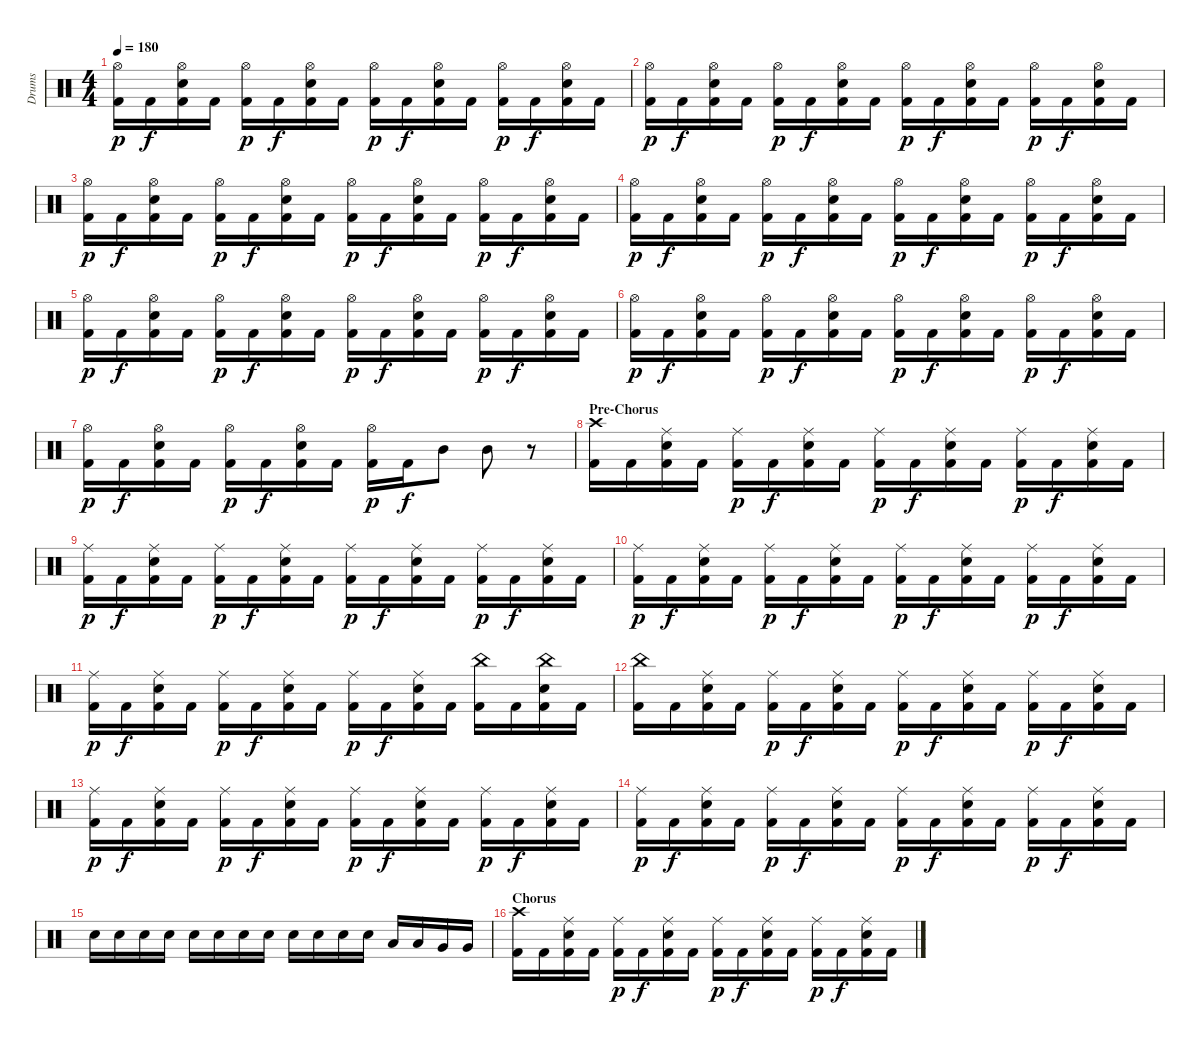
\track ("Drums" "Drums") {instrument percussion}
\staff {score}
\articulation defaults
\ts (4 4)
\tempo 180
\clef neutral
\ks c
("Hi-Hat (open)" "Kick (hit) 2").16{dy p} "Kick (hit) 2".16{dy f} ("Hi-Hat (open)" "Snare (hit) 2" "Kick (hit) 2").16 "Kick (hit) 2".16 ("Hi-Hat (open)" "Kick (hit) 2").16{dy p} "Kick (hit) 2".16{dy f} ("Hi-Hat (open)" "Snare (hit) 2" "Kick (hit) 2").16 "Kick (hit) 2".16 ("Hi-Hat (open)" "Kick (hit) 2").16{dy p} "Kick (hit) 2".16{dy f} ("Hi-Hat (open)" "Snare (hit) 2" "Kick (hit) 2").16 "Kick (hit) 2".16 ("Hi-Hat (open)" "Kick (hit) 2").16{dy p} "Kick (hit) 2".16{dy f} ("Hi-Hat (open)" "Snare (hit) 2" "Kick (hit) 2").16 "Kick (hit) 2".16 |
("Hi-Hat (open)" "Kick (hit) 2").16{dy p} "Kick (hit) 2".16{dy f} ("Hi-Hat (open)" "Snare (hit) 2" "Kick (hit) 2").16 "Kick (hit) 2".16 ("Hi-Hat (open)" "Kick (hit) 2").16{dy p} "Kick (hit) 2".16{dy f} ("Hi-Hat (open)" "Snare (hit) 2" "Kick (hit) 2").16 "Kick (hit) 2".16 ("Hi-Hat (open)" "Kick (hit) 2").16{dy p} "Kick (hit) 2".16{dy f} ("Hi-Hat (open)" "Snare (hit) 2" "Kick (hit) 2").16 "Kick (hit) 2".16 ("Hi-Hat (open)" "Kick (hit) 2").16{dy p} "Kick (hit) 2".16{dy f} ("Hi-Hat (open)" "Snare (hit) 2" "Kick (hit) 2").16 "Kick (hit) 2".16 |
("Hi-Hat (open)" "Kick (hit) 2").16{dy p} "Kick (hit) 2".16{dy f} ("Hi-Hat (open)" "Snare (hit) 2" "Kick (hit) 2").16 "Kick (hit) 2".16 ("Hi-Hat (open)" "Kick (hit) 2").16{dy p} "Kick (hit) 2".16{dy f} ("Hi-Hat (open)" "Snare (hit) 2" "Kick (hit) 2").16 "Kick (hit) 2".16 ("Hi-Hat (open)" "Kick (hit) 2").16{dy p} "Kick (hit) 2".16{dy f} ("Hi-Hat (open)" "Snare (hit) 2" "Kick (hit) 2").16 "Kick (hit) 2".16 ("Hi-Hat (open)" "Kick (hit) 2").16{dy p} "Kick (hit) 2".16{dy f} ("Hi-Hat (open)" "Snare (hit) 2" "Kick (hit) 2").16 "Kick (hit) 2".16 |
("Hi-Hat (open)" "Kick (hit) 2").16{dy p} "Kick (hit) 2".16{dy f} ("Hi-Hat (open)" "Snare (hit) 2" "Kick (hit) 2").16 "Kick (hit) 2".16 ("Hi-Hat (open)" "Kick (hit) 2").16{dy p} "Kick (hit) 2".16{dy f} ("Hi-Hat (open)" "Snare (hit) 2" "Kick (hit) 2").16 "Kick (hit) 2".16 ("Hi-Hat (open)" "Kick (hit) 2").16{dy p} "Kick (hit) 2".16{dy f} ("Hi-Hat (open)" "Snare (hit) 2" "Kick (hit) 2").16 "Kick (hit) 2".16 ("Hi-Hat (open)" "Kick (hit) 2").16{dy p} "Kick (hit) 2".16{dy f} ("Hi-Hat (open)" "Snare (hit) 2" "Kick (hit) 2").16 "Kick (hit) 2".16 |
("Hi-Hat (open)" "Kick (hit) 2").16{dy p} "Kick (hit) 2".16{dy f} ("Hi-Hat (open)" "Snare (hit) 2" "Kick (hit) 2").16 "Kick (hit) 2".16 ("Hi-Hat (open)" "Kick (hit) 2").16{dy p} "Kick (hit) 2".16{dy f} ("Hi-Hat (open)" "Snare (hit) 2" "Kick (hit) 2").16 "Kick (hit) 2".16 ("Hi-Hat (open)" "Kick (hit) 2").16{dy p} "Kick (hit) 2".16{dy f} ("Hi-Hat (open)" "Snare (hit) 2" "Kick (hit) 2").16 "Kick (hit) 2".16 ("Hi-Hat (open)" "Kick (hit) 2").16{dy p} "Kick (hit) 2".16{dy f} ("Hi-Hat (open)" "Snare (hit) 2" "Kick (hit) 2").16 "Kick (hit) 2".16 |
("Hi-Hat (open)" "Kick (hit) 2").16{dy p} "Kick (hit) 2".16{dy f} ("Hi-Hat (open)" "Snare (hit) 2" "Kick (hit) 2").16 "Kick (hit) 2".16 ("Hi-Hat (open)" "Kick (hit) 2").16{dy p} "Kick (hit) 2".16{dy f} ("Hi-Hat (open)" "Snare (hit) 2" "Kick (hit) 2").16 "Kick (hit) 2".16 ("Hi-Hat (open)" "Kick (hit) 2").16{dy p} "Kick (hit) 2".16{dy f} ("Hi-Hat (open)" "Snare (hit) 2" "Kick (hit) 2").16 "Kick (hit) 2".16 ("Hi-Hat (open)" "Kick (hit) 2").16{dy p} "Kick (hit) 2".16{dy f} ("Hi-Hat (open)" "Snare (hit) 2" "Kick (hit) 2").16 "Kick (hit) 2".16 |
("Hi-Hat (open)" "Kick (hit) 2").16{dy p} "Kick (hit) 2".16{dy f} ("Hi-Hat (open)" "Snare (hit) 2" "Kick (hit) 2").16 "Kick (hit) 2".16 ("Hi-Hat (open)" "Kick (hit) 2").16{dy p} "Kick (hit) 2".16{dy f} ("Hi-Hat (open)" "Snare (hit) 2" "Kick (hit) 2").16 "Kick (hit) 2".16 ("Hi-Hat (open)" "Kick (hit) 2").16{dy p} "Kick (hit) 2".16{dy f} "Mid Tom (hit)".8 "Mid Tom (hit)".8 r.8 |
\section ("" "Pre-Chorus")
("Crash high (hit)" "Kick (hit) 2").16 "Kick (hit) 2".16 ("Ride (middle)" "Snare (hit) 2" "Kick (hit) 2").16 "Kick (hit) 2".16 ("Ride (middle)" "Kick (hit) 2").16{dy p} "Kick (hit) 2".16{dy f} ("Ride (middle)" "Snare (hit) 2" "Kick (hit) 2").16 "Kick (hit) 2".16 ("Ride (middle)" "Kick (hit) 2").16{dy p} "Kick (hit) 2".16{dy f} ("Ride (middle)" "Snare (hit) 2" "Kick (hit) 2").16 "Kick (hit) 2".16 ("Ride (middle)" "Kick (hit) 2").16{dy p} "Kick (hit) 2".16{dy f} ("Ride (middle)" "Snare (hit) 2" "Kick (hit) 2").16 "Kick (hit) 2".16 |
("Ride (middle)" "Kick (hit) 2").16{dy p} "Kick (hit) 2".16{dy f} ("Ride (middle)" "Snare (hit) 2" "Kick (hit) 2").16 "Kick (hit) 2".16 ("Ride (middle)" "Kick (hit) 2").16{dy p} "Kick (hit) 2".16{dy f} ("Ride (middle)" "Snare (hit) 2" "Kick (hit) 2").16 "Kick (hit) 2".16 ("Ride (middle)" "Kick (hit) 2").16{dy p} "Kick (hit) 2".16{dy f} ("Ride (middle)" "Snare (hit) 2" "Kick (hit) 2").16 "Kick (hit) 2".16 ("Ride (middle)" "Kick (hit) 2").16{dy p} "Kick (hit) 2".16{dy f} ("Ride (middle)" "Snare (hit) 2" "Kick (hit) 2").16 "Kick (hit) 2".16 |
("Ride (middle)" "Kick (hit) 2").16{dy p} "Kick (hit) 2".16{dy f} ("Ride (middle)" "Snare (hit) 2" "Kick (hit) 2").16 "Kick (hit) 2".16 ("Ride (middle)" "Kick (hit) 2").16{dy p} "Kick (hit) 2".16{dy f} ("Ride (middle)" "Snare (hit) 2" "Kick (hit) 2").16 "Kick (hit) 2".16 ("Ride (middle)" "Kick (hit) 2").16{dy p} "Kick (hit) 2".16{dy f} ("Ride (middle)" "Snare (hit) 2" "Kick (hit) 2").16 "Kick (hit) 2".16 ("Ride (middle)" "Kick (hit) 2").16{dy p} "Kick (hit) 2".16{dy f} ("Ride (middle)" "Snare (hit) 2" "Kick (hit) 2").16 "Kick (hit) 2".16 |
("Ride (middle)" "Kick (hit) 2").16{dy p} "Kick (hit) 2".16{dy f} ("Ride (middle)" "Snare (hit) 2" "Kick (hit) 2").16 "Kick (hit) 2".16 ("Ride (middle)" "Kick (hit) 2").16{dy p} "Kick (hit) 2".16{dy f} ("Ride (middle)" "Snare (hit) 2" "Kick (hit) 2").16 "Kick (hit) 2".16 ("Ride (middle)" "Kick (hit) 2").16{dy p} "Kick (hit) 2".16{dy f} ("Ride (middle)" "Snare (hit) 2" "Kick (hit) 2").16 "Kick (hit) 2".16 ("China (hit)" "Kick (hit) 2").16 "Kick (hit) 2".16 ("China (hit)" "Snare (hit) 2" "Kick (hit) 2").16 "Kick (hit) 2".16 |
("China (hit)" "Kick (hit) 2").16 "Kick (hit) 2".16 ("Ride (middle)" "Snare (hit) 2" "Kick (hit) 2").16 "Kick (hit) 2".16 ("Ride (middle)" "Kick (hit) 2").16{dy p} "Kick (hit) 2".16{dy f} ("Ride (middle)" "Snare (hit) 2" "Kick (hit) 2").16 "Kick (hit) 2".16 ("Ride (middle)" "Kick (hit) 2").16{dy p} "Kick (hit) 2".16{dy f} ("Ride (middle)" "Snare (hit) 2" "Kick (hit) 2").16 "Kick (hit) 2".16 ("Ride (middle)" "Kick (hit) 2").16{dy p} "Kick (hit) 2".16{dy f} ("Ride (middle)" "Snare (hit) 2" "Kick (hit) 2").16 "Kick (hit) 2".16 |
("Ride (middle)" "Kick (hit) 2").16{dy p} "Kick (hit) 2".16{dy f} ("Ride (middle)" "Snare (hit) 2" "Kick (hit) 2").16 "Kick (hit) 2".16 ("Ride (middle)" "Kick (hit) 2").16{dy p} "Kick (hit) 2".16{dy f} ("Ride (middle)" "Snare (hit) 2" "Kick (hit) 2").16 "Kick (hit) 2".16 ("Ride (middle)" "Kick (hit) 2").16{dy p} "Kick (hit) 2".16{dy f} ("Ride (middle)" "Snare (hit) 2" "Kick (hit) 2").16 "Kick (hit) 2".16 ("Ride (middle)" "Kick (hit) 2").16{dy p} "Kick (hit) 2".16{dy f} ("Ride (middle)" "Snare (hit) 2" "Kick (hit) 2").16 "Kick (hit) 2".16 |
("Ride (middle)" "Kick (hit) 2").16{dy p} "Kick (hit) 2".16{dy f} ("Ride (middle)" "Snare (hit) 2" "Kick (hit) 2").16 "Kick (hit) 2".16 ("Ride (middle)" "Kick (hit) 2").16{dy p} "Kick (hit) 2".16{dy f} ("Ride (middle)" "Snare (hit) 2" "Kick (hit) 2").16 "Kick (hit) 2".16 ("Ride (middle)" "Kick (hit) 2").16{dy p} "Kick (hit) 2".16{dy f} ("Ride (middle)" "Snare (hit) 2" "Kick (hit) 2").16 "Kick (hit) 2".16 ("Ride (middle)" "Kick (hit) 2").16{dy p} "Kick (hit) 2".16{dy f} ("Ride (middle)" "Snare (hit) 2" "Kick (hit) 2").16 "Kick (hit) 2".16 |
"Snare (hit) 2".16 "Snare (hit) 2".16 "Snare (hit) 2".16 "Snare (hit) 2".16 "Snare (hit) 2".16 "Snare (hit) 2".16 "Snare (hit) 2".16 "Snare (hit) 2".16 "Snare (hit) 2".16 "Snare (hit) 2".16 "Snare (hit) 2".16 "Snare (hit) 2".16 "Low Tom (hit)".16 "Low Tom (hit)".16 "Very Low Tom (hit)".16 "Very Low Tom (hit)".16 |
\section ("" "Chorus")
("Crash high (hit)" "Kick (hit) 2").16 "Kick (hit) 2".16 ("Ride (middle)" "Snare (hit) 2" "Kick (hit) 2").16 "Kick (hit) 2".16 ("Ride (middle)" "Kick (hit) 2").16{dy p} "Kick (hit) 2".16{dy f} ("Ride (middle)" "Snare (hit) 2" "Kick (hit) 2").16 "Kick (hit) 2".16 ("Ride (middle)" "Kick (hit) 2").16{dy p} "Kick (hit) 2".16{dy f} ("Ride (middle)" "Snare (hit) 2" "Kick (hit) 2").16 "Kick (hit) 2".16 ("Ride (middle)" "Kick (hit) 2").16{dy p} "Kick (hit) 2".16{dy f} ("Ride (middle)" "Snare (hit) 2" "Kick (hit) 2").16 "Kick (hit) 2".16
